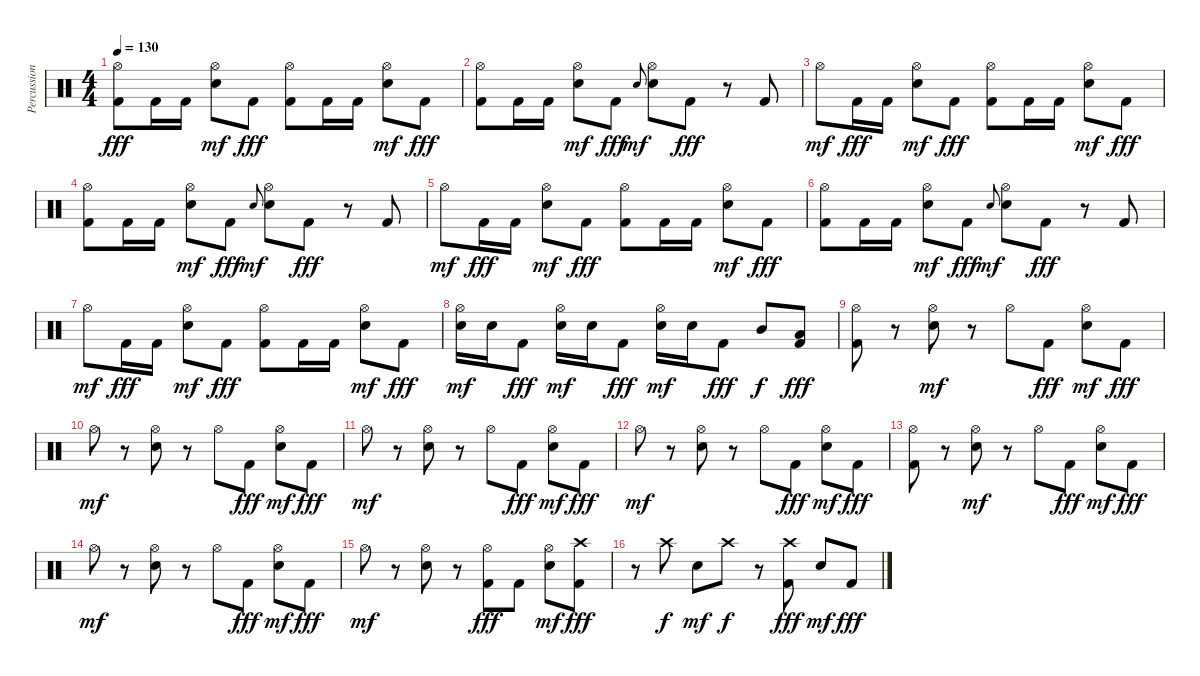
\track ("Percussion" "Percussion") {instrument percussion}
\staff {score}
\articulation defaults
\ts (4 4)
\tempo 130
\clef neutral
\ks c
("Hi-Hat (open)" "Kick (hit) 2").8{dy fff} "Kick (hit) 2".16 "Kick (hit) 2".16 ("Hi-Hat (open)" "Electric Snare (hit)").8{dy mf} "Kick (hit) 2".8{dy fff} ("Hi-Hat (open)" "Kick (hit) 2").8 "Kick (hit) 2".16 "Kick (hit) 2".16 ("Hi-Hat (open)" "Electric Snare (hit)").8{dy mf} "Kick (hit) 2".8{dy fff} |
("Hi-Hat (open)" "Kick (hit) 2").8 "Kick (hit) 2".16 "Kick (hit) 2".16 ("Hi-Hat (open)" "Electric Snare (hit)").8{dy mf} "Kick (hit) 2".8{dy fff} "Electric Snare (hit)".8{gr onbeat dy mf} ("Hi-Hat (open)" "Electric Snare (hit)").8 "Kick (hit) 2".8{dy fff} r.8 "Kick (hit) 2".8 |
"Hi-Hat (open)".8{dy mf} "Kick (hit) 2".16{dy fff} "Kick (hit) 2".16 ("Hi-Hat (open)" "Electric Snare (hit)").8{dy mf} "Kick (hit) 2".8{dy fff} ("Hi-Hat (open)" "Kick (hit) 2").8 "Kick (hit) 2".16 "Kick (hit) 2".16 ("Hi-Hat (open)" "Electric Snare (hit)").8{dy mf} "Kick (hit) 2".8{dy fff} |
("Hi-Hat (open)" "Kick (hit) 2").8 "Kick (hit) 2".16 "Kick (hit) 2".16 ("Hi-Hat (open)" "Electric Snare (hit)").8{dy mf} "Kick (hit) 2".8{dy fff} "Electric Snare (hit)".8{gr onbeat dy mf} ("Hi-Hat (open)" "Electric Snare (hit)").8 "Kick (hit) 2".8{dy fff} r.8 "Kick (hit) 2".8 |
"Hi-Hat (open)".8{dy mf} "Kick (hit) 2".16{dy fff} "Kick (hit) 2".16 ("Hi-Hat (open)" "Electric Snare (hit)").8{dy mf} "Kick (hit) 2".8{dy fff} ("Hi-Hat (open)" "Kick (hit) 2").8 "Kick (hit) 2".16 "Kick (hit) 2".16 ("Hi-Hat (open)" "Electric Snare (hit)").8{dy mf} "Kick (hit) 2".8{dy fff} |
("Hi-Hat (open)" "Kick (hit) 2").8 "Kick (hit) 2".16 "Kick (hit) 2".16 ("Hi-Hat (open)" "Electric Snare (hit)").8{dy mf} "Kick (hit) 2".8{dy fff} "Electric Snare (hit)".8{gr onbeat dy mf} ("Hi-Hat (open)" "Electric Snare (hit)").8 "Kick (hit) 2".8{dy fff} r.8 "Kick (hit) 2".8 |
"Hi-Hat (open)".8{dy mf} "Kick (hit) 2".16{dy fff} "Kick (hit) 2".16 ("Hi-Hat (open)" "Electric Snare (hit)").8{dy mf} "Kick (hit) 2".8{dy fff} ("Hi-Hat (open)" "Kick (hit) 2").8 "Kick (hit) 2".16 "Kick (hit) 2".16 ("Hi-Hat (open)" "Electric Snare (hit)").8{dy mf} "Kick (hit) 2".8{dy fff} |
("Hi-Hat (open)" "Electric Snare (hit)").16{dy mf} "Electric Snare (hit)".16 "Kick (hit) 2".8{dy fff} ("Hi-Hat (open)" "Electric Snare (hit)").16{dy mf} "Electric Snare (hit)".16 "Kick (hit) 2".8{dy fff} ("Hi-Hat (open)" "Electric Snare (hit)").16{dy mf} "Electric Snare (hit)".16 "Kick (hit) 2".8{dy fff} "Mid Tom (hit)".8{dy f} ("Low Tom (hit)" "Kick (hit) 2").8{dy fff} |
("Hi-Hat (open)" "Kick (hit) 2").8 r.8 ("Hi-Hat (open)" "Electric Snare (hit)").8{dy mf} r.8 "Hi-Hat (open)".8 "Kick (hit) 2".8{dy fff} ("Hi-Hat (open)" "Electric Snare (hit)").8{dy mf} "Kick (hit) 2".8{dy fff} |
"Hi-Hat (open)".8{dy mf} r.8 ("Hi-Hat (open)" "Electric Snare (hit)").8 r.8 "Hi-Hat (open)".8 "Kick (hit) 2".8{dy fff} ("Hi-Hat (open)" "Electric Snare (hit)").8{dy mf} "Kick (hit) 2".8{dy fff} |
"Hi-Hat (open)".8{dy mf} r.8 ("Hi-Hat (open)" "Electric Snare (hit)").8 r.8 "Hi-Hat (open)".8 "Kick (hit) 2".8{dy fff} ("Hi-Hat (open)" "Electric Snare (hit)").8{dy mf} "Kick (hit) 2".8{dy fff} |
"Hi-Hat (open)".8{dy mf} r.8 ("Hi-Hat (open)" "Electric Snare (hit)").8 r.8 "Hi-Hat (open)".8 "Kick (hit) 2".8{dy fff} ("Hi-Hat (open)" "Electric Snare (hit)").8{dy mf} "Kick (hit) 2".8{dy fff} |
("Hi-Hat (open)" "Kick (hit) 2").8 r.8 ("Hi-Hat (open)" "Electric Snare (hit)").8{dy mf} r.8 "Hi-Hat (open)".8 "Kick (hit) 2".8{dy fff} ("Hi-Hat (open)" "Electric Snare (hit)").8{dy mf} "Kick (hit) 2".8{dy fff} |
"Hi-Hat (open)".8{dy mf} r.8 ("Hi-Hat (open)" "Electric Snare (hit)").8 r.8 "Hi-Hat (open)".8 "Kick (hit) 2".8{dy fff} ("Hi-Hat (open)" "Electric Snare (hit)").8{dy mf} "Kick (hit) 2".8{dy fff} |
"Hi-Hat (open)".8{dy mf} r.8 ("Hi-Hat (open)" "Electric Snare (hit)").8 r.8 ("Hi-Hat (open)" "Kick (hit) 2").8{dy fff} "Kick (hit) 2".8 ("Hi-Hat (open)" "Electric Snare (hit)").8{dy mf} ("Crash high (hit)" "Kick (hit) 2").8{dy fff} |
r.8 "Crash high (hit)".8{dy f} "Electric Snare (hit)".8{dy mf} "Crash high (hit)".8{dy f} r.8 ("Crash high (hit)" "Kick (hit) 2").8{dy fff} "Electric Snare (hit)".8{dy mf} "Kick (hit) 2".8{dy fff}
